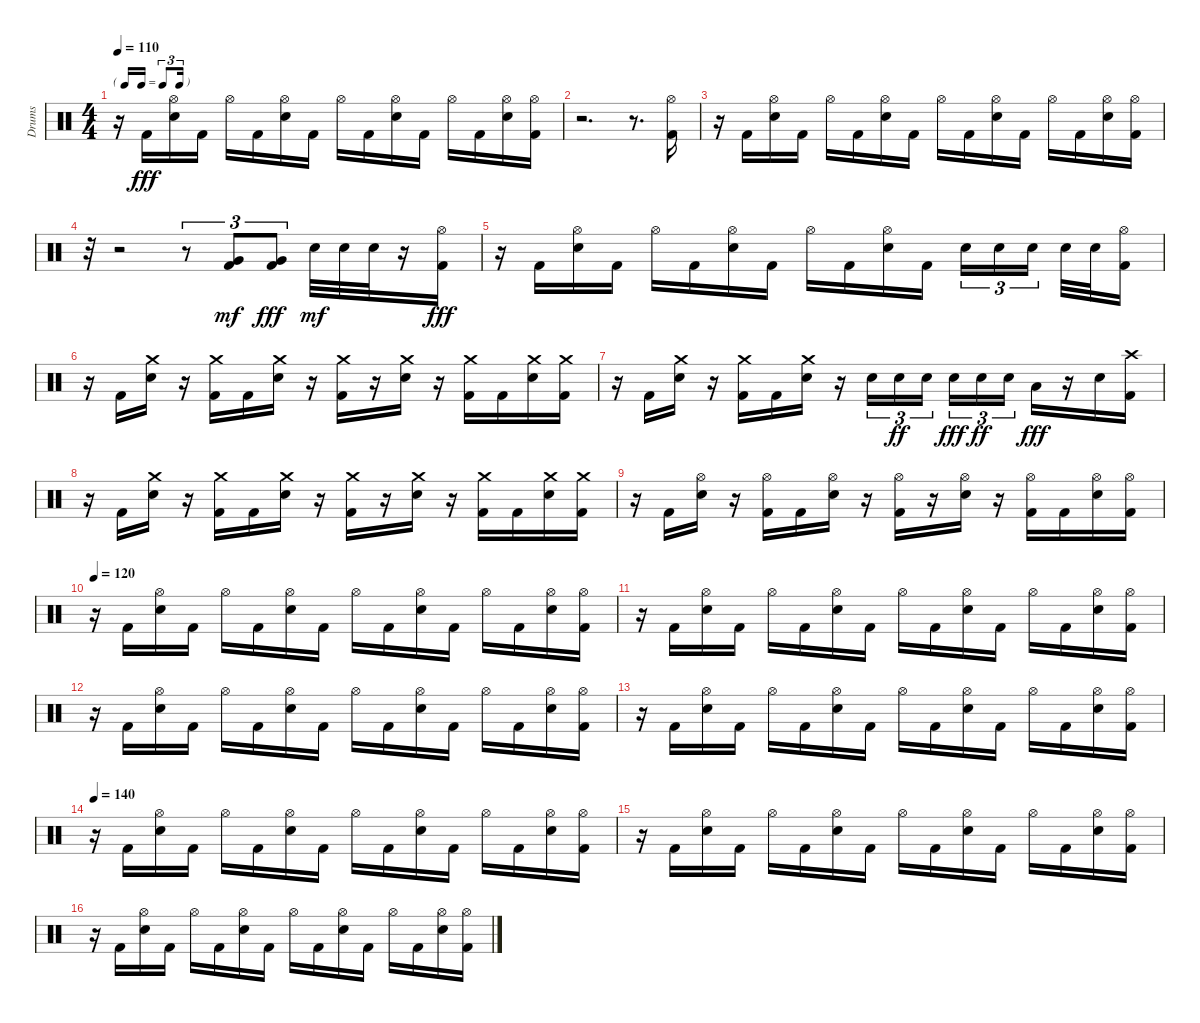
\track ("Drums" "Drums") {instrument percussion}
\staff {score}
\articulation defaults
\ts (4 4)
\tf triplet16th
\tempo 110
\clef neutral
\ks c
r.16{dy fff} "Kick (hit) 2".16 ("Hi-Hat (open)" "Snare (hit) 2").16 "Kick (hit) 2".16 "Hi-Hat (open)".16 "Kick (hit) 2".16 ("Hi-Hat (open)" "Snare (hit) 2").16 "Kick (hit) 2".16 "Hi-Hat (open)".16 "Kick (hit) 2".16 ("Hi-Hat (open)" "Snare (hit) 2").16 "Kick (hit) 2".16 "Hi-Hat (open)".16 "Kick (hit) 2".16 ("Hi-Hat (open)" "Snare (hit) 2").16 ("Hi-Hat (open)" "Kick (hit) 2").16 |
r.2{d} r.8{d} ("Hi-Hat (open)" "Kick (hit) 2").16 |
r.16 "Kick (hit) 2".16 ("Hi-Hat (open)" "Snare (hit) 2").16 "Kick (hit) 2".16 "Hi-Hat (open)".16 "Kick (hit) 2".16 ("Hi-Hat (open)" "Snare (hit) 2").16 "Kick (hit) 2".16 "Hi-Hat (open)".16 "Kick (hit) 2".16 ("Hi-Hat (open)" "Snare (hit) 2").16 "Kick (hit) 2".16 "Hi-Hat (open)".16 "Kick (hit) 2".16 ("Hi-Hat (open)" "Snare (hit) 2").16 ("Hi-Hat (open)" "Kick (hit) 2").16 |
r.32 r.2 r.8{tu (3 2)} ("Very Low Tom (hit)" "Kick (hit) 2").8{tu (3 2) dy mf} ("Very Low Tom (hit)" "Kick (hit) 2").8{tu (3 2) dy fff} "Snare (hit) 2".32{dy mf} "Snare (hit) 2".32 "Snare (hit) 2".32 r.16 ("Hi-Hat (open)" "Kick (hit) 2").16{dy fff} |
r.16 "Kick (hit) 2".16 ("Hi-Hat (open)" "Snare (hit) 2").16 "Kick (hit) 2".16 "Hi-Hat (open)".16 "Kick (hit) 2".16 ("Hi-Hat (open)" "Snare (hit) 2").16 "Kick (hit) 2".16 "Hi-Hat (open)".16 "Kick (hit) 2".16 ("Hi-Hat (open)" "Snare (hit) 2").16 "Kick (hit) 2".16 "Snare (hit) 2".16{tu (3 2)} "Snare (hit) 2".16{tu (3 2)} "Snare (hit) 2".16{tu (3 2) beam splitsecondary} "Snare (hit) 2".32 "Snare (hit) 2".32 ("Hi-Hat (open)" "Kick (hit) 2").16 |
r.16 "Kick (hit) 2".16 ("Crash medium (hit)" "Snare (hit) 2").16 r.16 ("Crash medium (hit)" "Kick (hit) 2").16 "Kick (hit) 2".16 ("Crash medium (hit)" "Snare (hit) 2").16 r.16 ("Crash medium (hit)" "Kick (hit) 2").16 r.16 ("Crash medium (hit)" "Snare (hit) 2").16 r.16 ("Crash medium (hit)" "Kick (hit) 2").16 "Kick (hit) 2".16 ("Crash medium (hit)" "Snare (hit) 2").16 ("Crash medium (hit)" "Kick (hit) 2").16 |
r.16 "Kick (hit) 2".16 ("Crash medium (hit)" "Snare (hit) 2").16 r.16 ("Crash medium (hit)" "Kick (hit) 2").16 "Kick (hit) 2".16 ("Crash medium (hit)" "Snare (hit) 2").16 r.16 "Snare (hit) 2".16{tu (3 2)} "Snare (hit) 2".16{tu (3 2) dy ff} "Snare (hit) 2".16{tu (3 2) beam splitsecondary} "Snare (hit) 2".16{tu (3 2) dy fff} "Snare (hit) 2".16{tu (3 2) dy ff} "Snare (hit) 2".16{tu (3 2)} "Low Tom (hit)".16{dy fff} r.16 "Snare (hit) 2".16 ("Crash high (hit)" "Kick (hit) 2").16 |
r.16 "Kick (hit) 2".16 ("Crash medium (hit)" "Snare (hit) 2").16 r.16 ("Crash medium (hit)" "Kick (hit) 2").16 "Kick (hit) 2".16 ("Crash medium (hit)" "Snare (hit) 2").16 r.16 ("Crash medium (hit)" "Kick (hit) 2").16 r.16 ("Crash medium (hit)" "Snare (hit) 2").16 r.16 ("Crash medium (hit)" "Kick (hit) 2").16 "Kick (hit) 2".16 ("Crash medium (hit)" "Snare (hit) 2").16 ("Crash medium (hit)" "Kick (hit) 2").16 |
r.16 "Kick (hit) 2".16 ("Hi-Hat (open)" "Snare (hit) 2").16 r.16 ("Hi-Hat (open)" "Kick (hit) 2").16 "Kick (hit) 2".16 ("Hi-Hat (open)" "Snare (hit) 2").16 r.16 ("Hi-Hat (open)" "Kick (hit) 2").16 r.16 ("Hi-Hat (open)" "Snare (hit) 2").16 r.16 ("Hi-Hat (open)" "Kick (hit) 2").16 "Kick (hit) 2".16 ("Hi-Hat (open)" "Snare (hit) 2").16 ("Hi-Hat (open)" "Kick (hit) 2").16 |
\tempo 120
r.16 "Kick (hit) 2".16 ("Hi-Hat (open)" "Snare (hit) 2").16 "Kick (hit) 2".16 "Hi-Hat (open)".16 "Kick (hit) 2".16 ("Hi-Hat (open)" "Snare (hit) 2").16 "Kick (hit) 2".16 "Hi-Hat (open)".16 "Kick (hit) 2".16 ("Hi-Hat (open)" "Snare (hit) 2").16 "Kick (hit) 2".16 "Hi-Hat (open)".16 "Kick (hit) 2".16 ("Hi-Hat (open)" "Snare (hit) 2").16 ("Hi-Hat (open)" "Kick (hit) 2").16 |
r.16 "Kick (hit) 2".16 ("Hi-Hat (open)" "Snare (hit) 2").16 "Kick (hit) 2".16 "Hi-Hat (open)".16 "Kick (hit) 2".16 ("Hi-Hat (open)" "Snare (hit) 2").16 "Kick (hit) 2".16 "Hi-Hat (open)".16 "Kick (hit) 2".16 ("Hi-Hat (open)" "Snare (hit) 2").16 "Kick (hit) 2".16 "Hi-Hat (open)".16 "Kick (hit) 2".16 ("Hi-Hat (open)" "Snare (hit) 2").16 ("Hi-Hat (open)" "Kick (hit) 2").16 |
r.16 "Kick (hit) 2".16 ("Hi-Hat (open)" "Snare (hit) 2").16 "Kick (hit) 2".16 "Hi-Hat (open)".16 "Kick (hit) 2".16 ("Hi-Hat (open)" "Snare (hit) 2").16 "Kick (hit) 2".16 "Hi-Hat (open)".16 "Kick (hit) 2".16 ("Hi-Hat (open)" "Snare (hit) 2").16 "Kick (hit) 2".16 "Hi-Hat (open)".16 "Kick (hit) 2".16 ("Hi-Hat (open)" "Snare (hit) 2").16 ("Hi-Hat (open)" "Kick (hit) 2").16 |
r.16 "Kick (hit) 2".16 ("Hi-Hat (open)" "Snare (hit) 2").16 "Kick (hit) 2".16 "Hi-Hat (open)".16 "Kick (hit) 2".16 ("Hi-Hat (open)" "Snare (hit) 2").16 "Kick (hit) 2".16 "Hi-Hat (open)".16 "Kick (hit) 2".16 ("Hi-Hat (open)" "Snare (hit) 2").16 "Kick (hit) 2".16 "Hi-Hat (open)".16 "Kick (hit) 2".16 ("Hi-Hat (open)" "Snare (hit) 2").16 ("Hi-Hat (open)" "Kick (hit) 2").16 |
\tempo 140
r.16 "Kick (hit) 2".16 ("Hi-Hat (open)" "Snare (hit) 2").16 "Kick (hit) 2".16 "Hi-Hat (open)".16 "Kick (hit) 2".16 ("Hi-Hat (open)" "Snare (hit) 2").16 "Kick (hit) 2".16 "Hi-Hat (open)".16 "Kick (hit) 2".16 ("Hi-Hat (open)" "Snare (hit) 2").16 "Kick (hit) 2".16 "Hi-Hat (open)".16 "Kick (hit) 2".16 ("Hi-Hat (open)" "Snare (hit) 2").16 ("Hi-Hat (open)" "Kick (hit) 2").16 |
r.16 "Kick (hit) 2".16 ("Hi-Hat (open)" "Snare (hit) 2").16 "Kick (hit) 2".16 "Hi-Hat (open)".16 "Kick (hit) 2".16 ("Hi-Hat (open)" "Snare (hit) 2").16 "Kick (hit) 2".16 "Hi-Hat (open)".16 "Kick (hit) 2".16 ("Hi-Hat (open)" "Snare (hit) 2").16 "Kick (hit) 2".16 "Hi-Hat (open)".16 "Kick (hit) 2".16 ("Hi-Hat (open)" "Snare (hit) 2").16 ("Hi-Hat (open)" "Kick (hit) 2").16 |
r.16 "Kick (hit) 2".16 ("Hi-Hat (open)" "Snare (hit) 2").16 "Kick (hit) 2".16 "Hi-Hat (open)".16 "Kick (hit) 2".16 ("Hi-Hat (open)" "Snare (hit) 2").16 "Kick (hit) 2".16 "Hi-Hat (open)".16 "Kick (hit) 2".16 ("Hi-Hat (open)" "Snare (hit) 2").16 "Kick (hit) 2".16 "Hi-Hat (open)".16 "Kick (hit) 2".16 ("Hi-Hat (open)" "Snare (hit) 2").16 ("Hi-Hat (open)" "Kick (hit) 2").16
